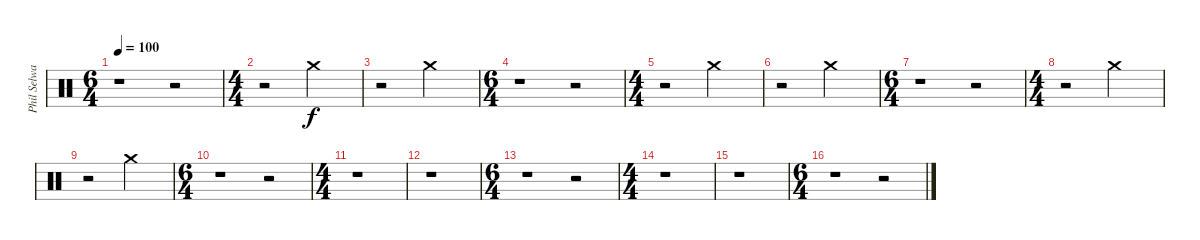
\track ("Phil Selway" "Phil Selwa") {instrument percussion}
\staff {score}
\articulation defaults
\ts (6 4)
\tempo 100
\clef neutral
\ks c
r.1{dy f} r.2 |
\ts (4 4)
r.2 "Crash medium (hit)".2 |
r.2 "Crash medium (hit)".2 |
\ts (6 4)
r.1 r.2 |
\ts (4 4)
r.2 "Crash medium (hit)".2 |
r.2 "Crash medium (hit)".2 |
\ts (6 4)
r.1 r.2 |
\ts (4 4)
r.2 "Crash medium (hit)".2 |
r.2 "Crash medium (hit)".2 |
\ts (6 4)
r.1 r.2 |
\ts (4 4)
r.1 |
r.1 |
\ts (6 4)
r.1 r.2 |
\ts (4 4)
r.1 |
r.1 |
\ts (6 4)
r.1 r.2
